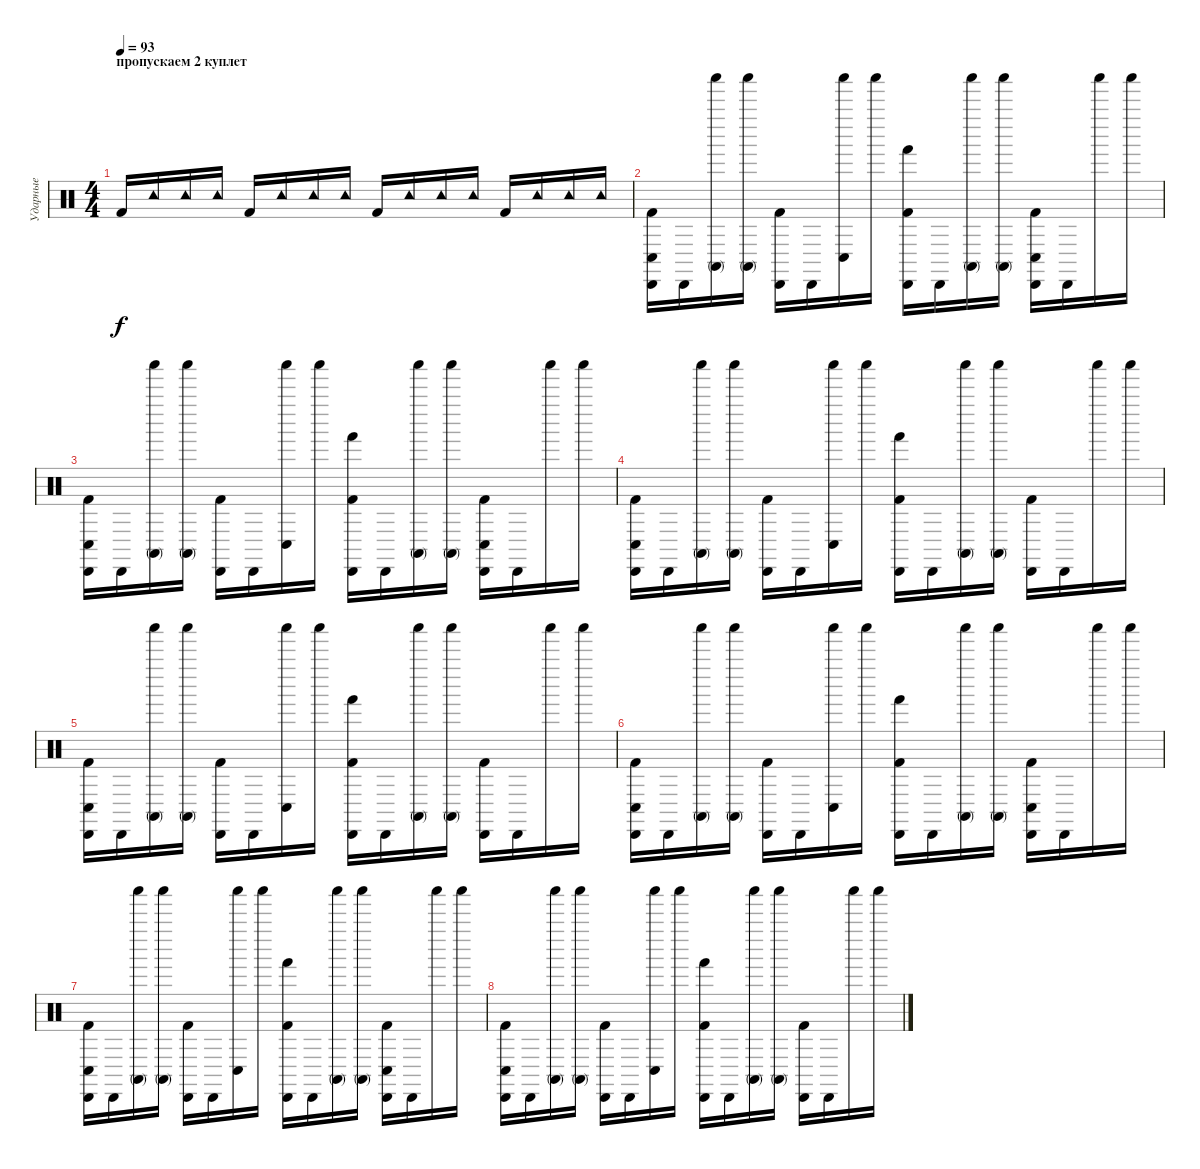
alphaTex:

\track ("Ударные" "Ударные") {solo instrument percussion}
\staff {score}
\articulation defaults
\ts (4 4)
\section ("" "пропускаем 2 куплет")
\tempo 93
\clef neutral
\ks c "Kick (hit) 2".16{dy f} "Tambourine (hit)".16 "Tambourine (hit)".16 "Tambourine (hit)".16 "Kick (hit) 2".16 "Tambourine (hit)".16 "Tambourine (hit)".16 "Tambourine (hit)".16 "Kick (hit) 2".16 "Tambourine (hit)".16 "Tambourine (hit)".16 "Tambourine (hit)".16 "Kick (hit) 2".16 "Tambourine (hit)".16 "Tambourine (hit)".16 "Tambourine (hit)".16
|
("Kick (hit) 2" "Conga low (hit)" "Cabasa (hit)").16 "Cabasa (hit)".16 ("Conga high (mute)" "Shaker (hit)").16 ("Conga high (mute)" "Shaker (hit)").16 ("Kick (hit) 2" "Cabasa (hit)").16 "Cabasa (hit)".16 ("Conga low (hit)" "Shaker (hit)").16 "Shaker (hit)".16 ("Kick (hit) 2" "Hand (hit)" "Cabasa (hit)").16 "Cabasa (hit)".16 ("Conga high (mute)" "Shaker (hit)").16 ("Conga high (mute)" "Shaker (hit)").16 ("Kick (hit) 2" "Conga low (hit)" "Cabasa (hit)").16 "Cabasa (hit)".16 "Shaker (hit)".16 "Shaker (hit)".16 |
("Kick (hit) 2" "Conga low (hit)" "Cabasa (hit)").16 "Cabasa (hit)".16 ("Conga high (mute)" "Shaker (hit)").16 ("Conga high (mute)" "Shaker (hit)").16 ("Kick (hit) 2" "Cabasa (hit)").16 "Cabasa (hit)".16 ("Conga low (hit)" "Shaker (hit)").16 "Shaker (hit)".16 ("Kick (hit) 2" "Hand (hit)" "Cabasa (hit)").16 "Cabasa (hit)".16 ("Conga high (mute)" "Shaker (hit)").16 ("Conga high (mute)" "Shaker (hit)").16 ("Kick (hit) 2" "Conga low (hit)" "Cabasa (hit)").16 "Cabasa (hit)".16 "Shaker (hit)".16 "Shaker (hit)".16 |
("Kick (hit) 2" "Conga low (hit)" "Cabasa (hit)").16 "Cabasa (hit)".16 ("Conga high (mute)" "Shaker (hit)").16 ("Conga high (mute)" "Shaker (hit)").16 ("Kick (hit) 2" "Cabasa (hit)").16 "Cabasa (hit)".16 ("Conga low (hit)" "Shaker (hit)").16 "Shaker (hit)".16 ("Kick (hit) 2" "Hand (hit)" "Cabasa (hit)").16 "Cabasa (hit)".16 ("Conga high (mute)" "Shaker (hit)").16 ("Conga high (mute)" "Shaker (hit)").16 ("Kick (hit) 2" "Cabasa (hit)").16 "Cabasa (hit)".16 "Shaker (hit)".16 "Shaker (hit)".16 |
("Kick (hit) 2" "Conga low (hit)" "Cabasa (hit)").16 "Cabasa (hit)".16 ("Conga high (mute)" "Shaker (hit)").16 ("Conga high (mute)" "Shaker (hit)").16 ("Kick (hit) 2" "Cabasa (hit)").16 "Cabasa (hit)".16 ("Conga low (hit)" "Shaker (hit)").16 "Shaker (hit)".16 ("Kick (hit) 2" "Hand (hit)" "Cabasa (hit)").16 "Cabasa (hit)".16 ("Conga high (mute)" "Shaker (hit)").16 ("Conga high (mute)" "Shaker (hit)").16 ("Kick (hit) 2" "Cabasa (hit)").16 "Cabasa (hit)".16 "Shaker (hit)".16 "Shaker (hit)".16 |
("Kick (hit) 2" "Conga low (hit)" "Cabasa (hit)").16 "Cabasa (hit)".16 ("Conga high (mute)" "Shaker (hit)").16 ("Conga high (mute)" "Shaker (hit)").16 ("Kick (hit) 2" "Cabasa (hit)").16 "Cabasa (hit)".16 ("Conga low (hit)" "Shaker (hit)").16 "Shaker (hit)".16 ("Kick (hit) 2" "Hand (hit)" "Cabasa (hit)").16 "Cabasa (hit)".16 ("Conga high (mute)" "Shaker (hit)").16 ("Conga high (mute)" "Shaker (hit)").16 ("Kick (hit) 2" "Conga low (hit)" "Cabasa (hit)").16 "Cabasa (hit)".16 "Shaker (hit)".16 "Shaker (hit)".16 |
("Kick (hit) 2" "Conga low (hit)" "Cabasa (hit)").16 "Cabasa (hit)".16 ("Conga high (mute)" "Shaker (hit)").16 ("Conga high (mute)" "Shaker (hit)").16 ("Kick (hit) 2" "Cabasa (hit)").16 "Cabasa (hit)".16 ("Conga low (hit)" "Shaker (hit)").16 "Shaker (hit)".16 ("Kick (hit) 2" "Hand (hit)" "Cabasa (hit)").16 "Cabasa (hit)".16 ("Conga high (mute)" "Shaker (hit)").16 ("Conga high (mute)" "Shaker (hit)").16 ("Kick (hit) 2" "Conga low (hit)" "Cabasa (hit)").16 "Cabasa (hit)".16 "Shaker (hit)".16 "Shaker (hit)".16 |
("Kick (hit) 2" "Conga low (hit)" "Cabasa (hit)").16 "Cabasa (hit)".16 ("Conga high (mute)" "Shaker (hit)").16 ("Conga high (mute)" "Shaker (hit)").16 ("Kick (hit) 2" "Cabasa (hit)").16 "Cabasa (hit)".16 ("Conga low (hit)" "Shaker (hit)").16 "Shaker (hit)".16 ("Kick (hit) 2" "Hand (hit)" "Cabasa (hit)").16 "Cabasa (hit)".16 ("Conga high (mute)" "Shaker (hit)").16 ("Conga high (mute)" "Shaker (hit)").16 ("Kick (hit) 2" "Cabasa (hit)").16 "Cabasa (hit)".16 "Shaker (hit)".16 "Shaker (hit)".16
